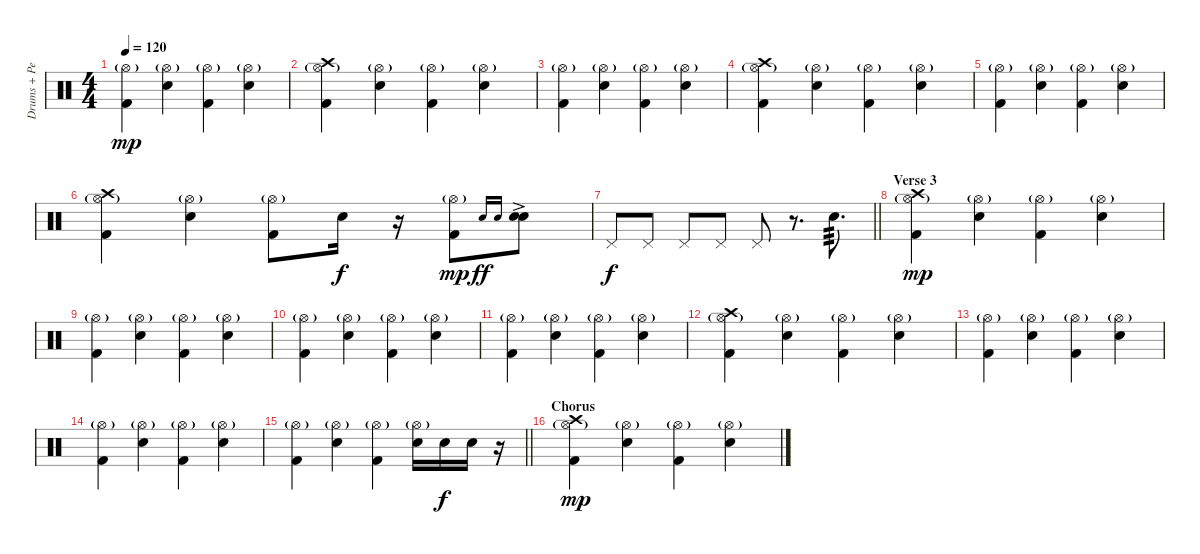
\track ("Drums + Percussion" "Drums + Pe") {instrument percussion}
\staff {score}
\articulation defaults
\ts (4 4)
\tempo 120
\clef neutral
\ks c
("Hi-Hat (open)"{g} "Kick (hit) 2").4{dy mp} ("Hi-Hat (open)"{g} "Electric Snare (hit)").4 ("Hi-Hat (open)"{g} "Kick (hit) 2").4 ("Hi-Hat (open)"{g} "Electric Snare (hit)").4 |
("Hi-Hat (open)"{g} "Crash high (hit)" "Kick (hit) 2").4 ("Hi-Hat (open)"{g} "Electric Snare (hit)").4 ("Hi-Hat (open)"{g} "Kick (hit) 2").4 ("Hi-Hat (open)"{g} "Electric Snare (hit)").4 |
("Hi-Hat (open)"{g} "Kick (hit) 2").4 ("Hi-Hat (open)"{g} "Electric Snare (hit)").4 ("Hi-Hat (open)"{g} "Kick (hit) 2").4 ("Hi-Hat (open)"{g} "Electric Snare (hit)").4 |
("Hi-Hat (open)"{g} "Crash high (hit)" "Kick (hit) 2").4 ("Hi-Hat (open)"{g} "Electric Snare (hit)").4 ("Hi-Hat (open)"{g} "Kick (hit) 2").4 ("Hi-Hat (open)"{g} "Electric Snare (hit)").4 |
("Hi-Hat (open)"{g} "Kick (hit) 2").4 ("Hi-Hat (open)"{g} "Electric Snare (hit)").4 ("Hi-Hat (open)"{g} "Kick (hit) 2").4 ("Hi-Hat (open)"{g} "Electric Snare (hit)").4 |
("Hi-Hat (open)"{g} "Crash high (hit)" "Kick (hit) 2").4 ("Hi-Hat (open)"{g} "Electric Snare (hit)").4 ("Hi-Hat (open)"{g} "Kick (hit) 2").8 "Electric Snare (hit)".16{dy f} r.16 ("Hi-Hat (open)"{g} "Kick (hit) 2").8{dy mp} "Electric Snare (hit)".16{gr onbeat dy ff} "Electric Snare (hit)".16{gr onbeat} ("Electric Snare (hit)"{ac} "Electric Snare (hit)"{ac}).8 |
\barLineRight lightlight "Pedal Hi-Hat (hit)".8{dy f} "Pedal Hi-Hat (hit)".8 "Pedal Hi-Hat (hit)".8 "Pedal Hi-Hat (hit)".8 "Pedal Hi-Hat (hit)".8
r.8{d} "Electric Snare (hit)".8{d tp 3} |
\section ("" "Verse 3")
("Hi-Hat (open)"{g} "Crash high (hit)" "Kick (hit) 2").4{dy mp} ("Hi-Hat (open)"{g} "Electric Snare (hit)").4 ("Hi-Hat (open)"{g} "Kick (hit) 2").4 ("Hi-Hat (open)"{g} "Electric Snare (hit)").4 |
("Hi-Hat (open)"{g} "Kick (hit) 2").4 ("Hi-Hat (open)"{g} "Electric Snare (hit)").4 ("Hi-Hat (open)"{g} "Kick (hit) 2").4 ("Hi-Hat (open)"{g} "Electric Snare (hit)").4 |
("Hi-Hat (open)"{g} "Kick (hit) 2").4 ("Hi-Hat (open)"{g} "Electric Snare (hit)").4 ("Hi-Hat (open)"{g} "Kick (hit) 2").4 ("Hi-Hat (open)"{g} "Electric Snare (hit)").4 |
("Hi-Hat (open)"{g} "Kick (hit) 2").4 ("Hi-Hat (open)"{g} "Electric Snare (hit)").4 ("Hi-Hat (open)"{g} "Kick (hit) 2").4 ("Hi-Hat (open)"{g} "Electric Snare (hit)").4 |
("Hi-Hat (open)"{g} "Crash high (hit)" "Kick (hit) 2").4 ("Hi-Hat (open)"{g} "Electric Snare (hit)").4 ("Hi-Hat (open)"{g} "Kick (hit) 2").4 ("Hi-Hat (open)"{g} "Electric Snare (hit)").4 |
("Hi-Hat (open)"{g} "Kick (hit) 2").4 ("Hi-Hat (open)"{g} "Electric Snare (hit)").4 ("Hi-Hat (open)"{g} "Kick (hit) 2").4 ("Hi-Hat (open)"{g} "Electric Snare (hit)").4 |
("Hi-Hat (open)"{g} "Kick (hit) 2").4 ("Hi-Hat (open)"{g} "Electric Snare (hit)").4 ("Hi-Hat (open)"{g} "Kick (hit) 2").4 ("Hi-Hat (open)"{g} "Electric Snare (hit)").4 |
\barLineRight lightlight
("Hi-Hat (open)"{g} "Kick (hit) 2").4 ("Hi-Hat (open)"{g} "Electric Snare (hit)").4 ("Hi-Hat (open)"{g} "Kick (hit) 2").4 ("Hi-Hat (open)"{g} "Electric Snare (hit)").16 "Electric Snare (hit)".16{dy f} "Electric Snare (hit)".16 r.16 |
\section ("" "Chorus")
("Hi-Hat (open)"{g} "Crash high (hit)" "Kick (hit) 2").4{dy mp} ("Hi-Hat (open)"{g} "Electric Snare (hit)").4 ("Hi-Hat (open)"{g} "Kick (hit) 2").4 ("Hi-Hat (open)"{g} "Electric Snare (hit)").4
